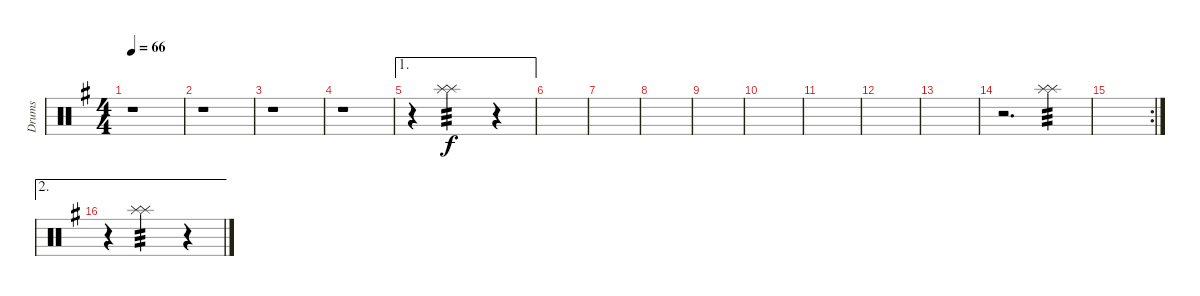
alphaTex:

\track ("Drums" "Drums") {instrument percussion}
\staff {score}
\articulation defaults
\ts (4 4)
\tempo 66
\clef neutral
\ks g
r.1{dy mp} |
r.1 |
r.1 |
r.1{volume 0} |
\ae 1
r.4 ("Splash (hit)" "Splash (hit)").2{tp 3 dy f volume 13} r.4 |
|
|
|
|
|
|
|
|
r.2{d} ("Splash (hit)" "Splash (hit)").4{tp 3 volume 13} |
\rc 2
|
\ae 2
r.4 ("Splash (hit)" "Splash (hit)").2{tp 3 volume 13} r.4
